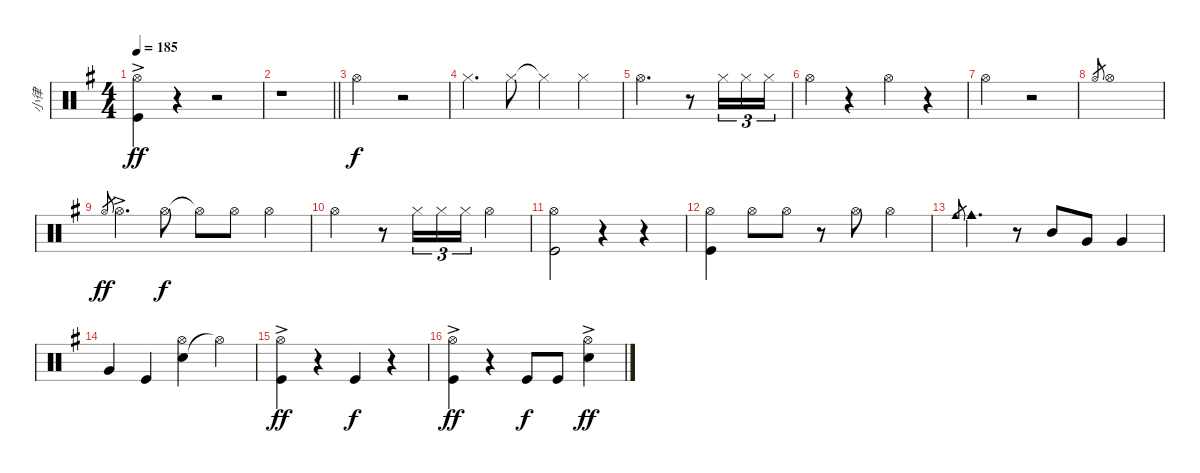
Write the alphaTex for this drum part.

\track ("小律" "小律") {instrument percussion}
\staff {score}
\articulation defaults
\ts (4 4)
\tempo 185
\clef neutral
\ks g
("Hi-Hat (open)" "Kick (hit)"{ac}).4{dy ff} r.4 r.2 |
\barLineRight lightlight
r.1 |
"Hi-Hat (open)".2{dy f} r.2 |
"Hi-Hat (closed)".4{d} "Hi-Hat (closed)".8 "Hi-Hat (closed)"{t}.4 "Hi-Hat (closed)".4 |
"Hi-Hat (open)".2{d} r.8 "Hi-Hat (closed)".16{tu (3 2)} "Hi-Hat (closed)".16{tu (3 2)} "Hi-Hat (closed)".16{tu (3 2)} |
"Hi-Hat (open)".4 r.4 "Hi-Hat (open)".4 r.4 |
"Hi-Hat (open)".2 r.2 |
"Hi-Hat (open)"{sl}.8{gr} "Hi-Hat (open)".1 |
"Hi-Hat (open)"{sl}.8{gr dy ff} "Hi-Hat (open)"{ac}.4{d} "Hi-Hat (open)".8{dy f} "Hi-Hat (open)"{t}.8 "Hi-Hat (open)".8 "Hi-Hat (open)".4 |
"Hi-Hat (open)".2 r.8 "Hi-Hat (closed)".16{tu (3 2)} "Hi-Hat (closed)".16{tu (3 2)} "Hi-Hat (closed)".16{tu (3 2)} "Hi-Hat (open)".4 |
("Hi-Hat (open)" "Kick (hit)").2 r.4 r.4 |
("Hi-Hat (open)" "Kick (hit)").4 "Hi-Hat (open)".8 "Hi-Hat (open)".8 r.8 "Hi-Hat (open)".8 "Hi-Hat (open)".4 |
"Cowbell medium (hit)"{sl}.8{gr} "Cowbell medium (hit)".4{d} r.8 "Mid Tom (hit)".8 "Very Low Tom (hit)".8 "Very Low Tom (hit)".4 |
"Very Low Tom (hit)".4 "Kick (hit)".4 ("Snare (hit) 2" "Hi-Hat (open)").4 "Hi-Hat (open)"{t}.4 |
("Hi-Hat (open)"{ac} "Kick (hit)").4{dy ff} r.4 "Kick (hit)".4{dy f} r.4 |
("Hi-Hat (open)" "Kick (hit)"{ac}).4{dy ff} r.4 "Kick (hit)".8{dy f} "Kick (hit)".8 ("Hi-Hat (open)" "Snare (hit) 2"{ac}).4{dy ff}
